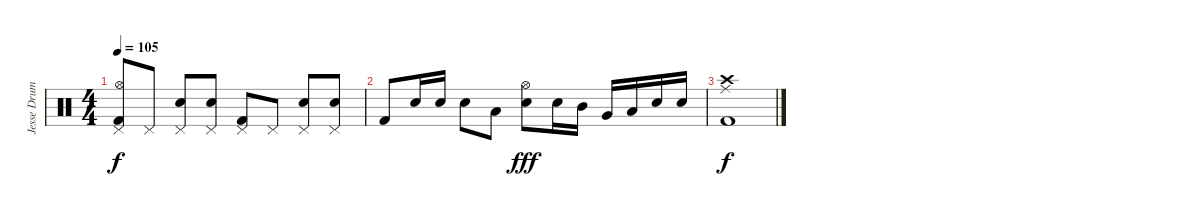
\track ("Jesse Drums" "Jesse Drum") {instrument percussion}
\staff {score}
\articulation defaults
\ts (4 4)
\tempo 105
\clef neutral
\ks c
("Pedal Hi-Hat (hit)" "Hi-Hat (open)" "Kick (hit) 2").8{dy f} "Pedal Hi-Hat (hit)".8 ("Pedal Hi-Hat (hit)" "Electric Snare (hit)").8 ("Pedal Hi-Hat (hit)" "Electric Snare (hit)").8 ("Pedal Hi-Hat (hit)" "Kick (hit) 2").8 "Pedal Hi-Hat (hit)".8 ("Pedal Hi-Hat (hit)" "Electric Snare (hit)").8 ("Pedal Hi-Hat (hit)" "Electric Snare (hit)").8 |
"Kick (hit) 2".8 "Electric Snare (hit)".16 "Electric Snare (hit)".16 "Electric Snare (hit)".8 "Low Tom (hit)".8 ("Hi-Hat (open)" "Electric Snare (hit)").8{dy fff} "Electric Snare (hit)".16 "Mid Tom (hit)".16 "Very Low Tom (hit)".16 "Low Tom (hit)".16 "Electric Snare (hit)".16 "Electric Snare (hit)".16 |
("Crash high (hit)" "Ride (middle)" "Kick (hit) 2").1{dy f}
